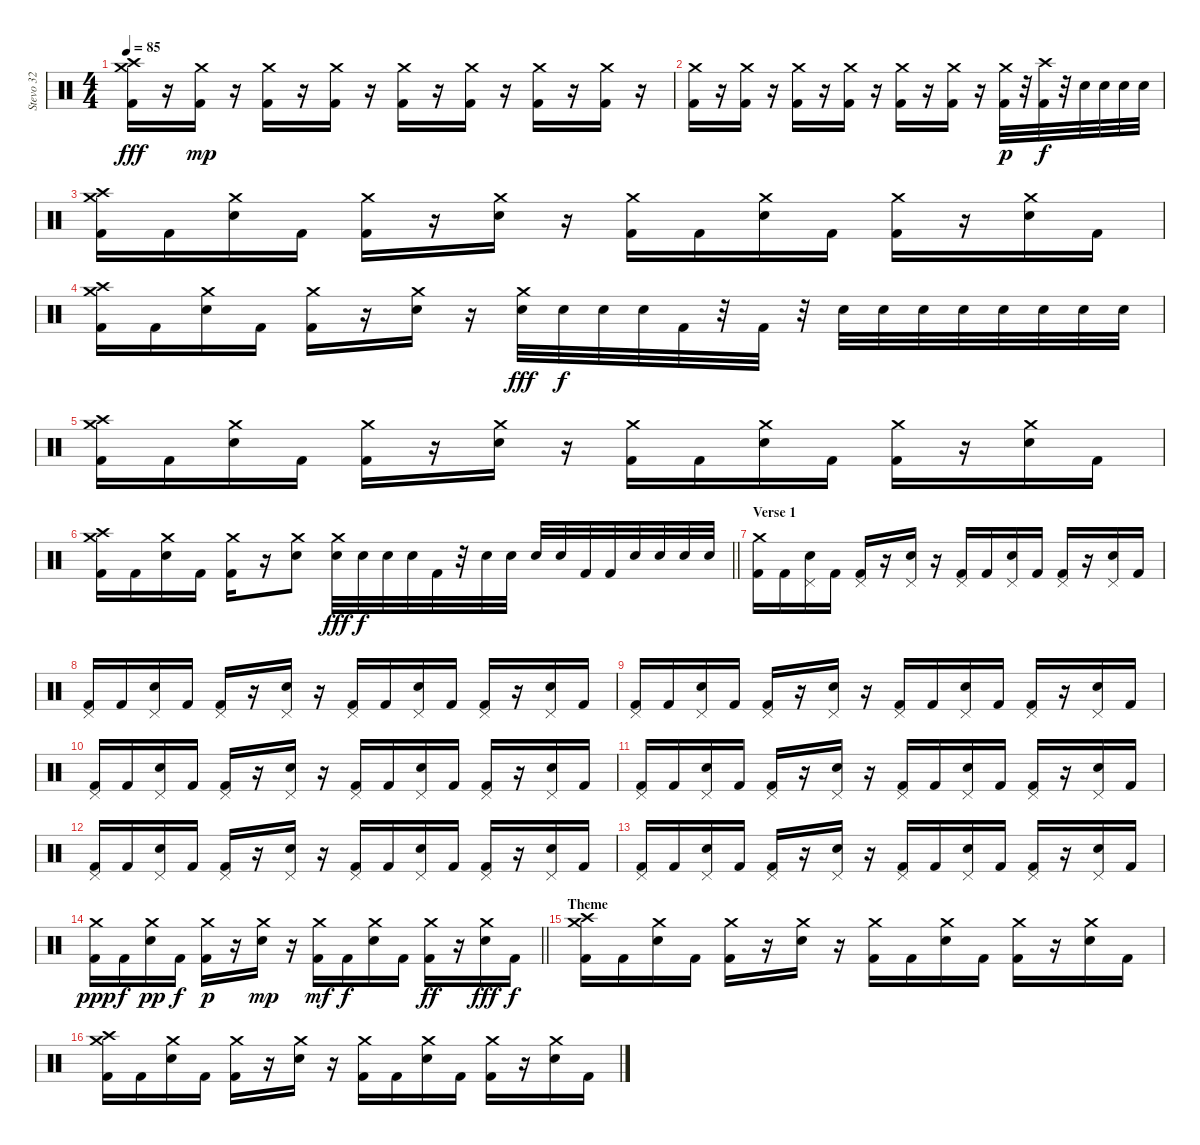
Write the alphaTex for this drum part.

\track ("Stevo 32" "Stevo 32") {instrument percussion}
\staff {score}
\articulation defaults
\ts (4 4)
\tempo 85
\clef neutral
\ks c
("Crash high (hit)" "Crash medium (hit)" "Kick (hit) 2").16{dy fff} r.16 ("Crash medium (hit)" "Kick (hit) 2").16{dy mp} r.16 ("Crash medium (hit)" "Kick (hit) 2").16 r.16 ("Crash medium (hit)" "Kick (hit) 2").16 r.16 ("Crash medium (hit)" "Kick (hit) 2").16 r.16 ("Crash medium (hit)" "Kick (hit) 2").16 r.16 ("Crash medium (hit)" "Kick (hit) 2").16 r.16 ("Crash medium (hit)" "Kick (hit) 2").16 r.16 |
("Crash medium (hit)" "Kick (hit) 2").16 r.16 ("Crash medium (hit)" "Kick (hit) 2").16 r.16 ("Crash medium (hit)" "Kick (hit) 2").16 r.16 ("Crash medium (hit)" "Kick (hit) 2").16 r.16 ("Crash medium (hit)" "Kick (hit) 2").16 r.16 ("Crash medium (hit)" "Kick (hit) 2").16 r.16 ("Crash medium (hit)" "Kick (hit) 2").32{dy p} r.32 ("Crash high (hit)" "Kick (hit) 2").32{dy f} r.32 "Electric Snare (hit)".32 "Electric Snare (hit)".32 "Electric Snare (hit)".32 "Electric Snare (hit)".32 |
("Crash high (hit)" "Crash medium (hit)" "Kick (hit) 2").16 "Kick (hit) 2".16 ("Crash medium (hit)" "Electric Snare (hit)").16 "Kick (hit) 2".16 ("Crash medium (hit)" "Kick (hit) 2").16 r.16 ("Crash medium (hit)" "Electric Snare (hit)").16 r.16 ("Crash medium (hit)" "Kick (hit) 2").16 "Kick (hit) 2".16 ("Crash medium (hit)" "Electric Snare (hit)").16 "Kick (hit) 2".16 ("Crash medium (hit)" "Kick (hit) 2").16 r.16 ("Crash medium (hit)" "Electric Snare (hit)").16 "Kick (hit) 2".16 |
("Crash high (hit)" "Crash medium (hit)" "Kick (hit) 2").16 "Kick (hit) 2".16 ("Crash medium (hit)" "Electric Snare (hit)").16 "Kick (hit) 2".16 ("Crash medium (hit)" "Kick (hit) 2").16 r.16 ("Crash medium (hit)" "Electric Snare (hit)").16 r.16 ("Crash medium (hit)" "Electric Snare (hit)").32{dy fff} "Electric Snare (hit)".32{dy f} "Electric Snare (hit)".32 "Electric Snare (hit)".32 "Kick (hit) 2".32 r.32 "Kick (hit) 2".32 r.32 "Electric Snare (hit)".32 "Electric Snare (hit)".32 "Electric Snare (hit)".32 "Electric Snare (hit)".32 "Electric Snare (hit)".32 "Electric Snare (hit)".32 "Electric Snare (hit)".32 "Electric Snare (hit)".32 |
("Crash high (hit)" "Crash medium (hit)" "Kick (hit) 2").16 "Kick (hit) 2".16 ("Crash medium (hit)" "Electric Snare (hit)").16 "Kick (hit) 2".16 ("Crash medium (hit)" "Kick (hit) 2").16 r.16 ("Crash medium (hit)" "Electric Snare (hit)").16 r.16 ("Crash medium (hit)" "Kick (hit) 2").16 "Kick (hit) 2".16 ("Crash medium (hit)" "Electric Snare (hit)").16 "Kick (hit) 2".16 ("Crash medium (hit)" "Kick (hit) 2").16 r.16 ("Crash medium (hit)" "Electric Snare (hit)").16 "Kick (hit) 2".16 |
\barLineRight lightlight
("Crash high (hit)" "Crash medium (hit)" "Kick (hit) 2").16 "Kick (hit) 2".16 ("Crash medium (hit)" "Electric Snare (hit)").16 "Kick (hit) 2".16 ("Crash medium (hit)" "Kick (hit) 2").16 r.16 ("Crash medium (hit)" "Electric Snare (hit)").8 ("Crash medium (hit)" "Electric Snare (hit)").32{dy fff} "Electric Snare (hit)".32{dy f} "Electric Snare (hit)".32 "Electric Snare (hit)".32 "Kick (hit) 2".32 r.32 "Electric Snare (hit)".32 "Electric Snare (hit)".32 "Electric Snare (hit)".32 "Electric Snare (hit)".32 "Kick (hit) 2".32 "Kick (hit) 2".32 "Electric Snare (hit)".32 "Electric Snare (hit)".32 "Electric Snare (hit)".32 "Electric Snare (hit)".32 |
\section ("" "Verse 1")
("Crash medium (hit)" "Kick (hit) 2").16 "Kick (hit) 2".16 ("Pedal Hi-Hat (hit)" "Electric Snare (hit)").16 "Kick (hit) 2".16 ("Pedal Hi-Hat (hit)" "Kick (hit) 2").16 r.16 ("Pedal Hi-Hat (hit)" "Electric Snare (hit)").16 r.16 ("Pedal Hi-Hat (hit)" "Kick (hit) 2").16 "Kick (hit) 2".16 ("Pedal Hi-Hat (hit)" "Electric Snare (hit)").16 "Kick (hit) 2".16 ("Pedal Hi-Hat (hit)" "Kick (hit) 2").16 r.16 ("Pedal Hi-Hat (hit)" "Electric Snare (hit)").16 "Kick (hit) 2".16 |
("Pedal Hi-Hat (hit)" "Kick (hit) 2").16 "Kick (hit) 2".16 ("Pedal Hi-Hat (hit)" "Electric Snare (hit)").16 "Kick (hit) 2".16 ("Pedal Hi-Hat (hit)" "Kick (hit) 2").16 r.16 ("Pedal Hi-Hat (hit)" "Electric Snare (hit)").16 r.16 ("Pedal Hi-Hat (hit)" "Kick (hit) 2").16 "Kick (hit) 2".16 ("Pedal Hi-Hat (hit)" "Electric Snare (hit)").16 "Kick (hit) 2".16 ("Pedal Hi-Hat (hit)" "Kick (hit) 2").16 r.16 ("Pedal Hi-Hat (hit)" "Electric Snare (hit)").16 "Kick (hit) 2".16 |
("Pedal Hi-Hat (hit)" "Kick (hit) 2").16 "Kick (hit) 2".16 ("Pedal Hi-Hat (hit)" "Electric Snare (hit)").16 "Kick (hit) 2".16 ("Pedal Hi-Hat (hit)" "Kick (hit) 2").16 r.16 ("Pedal Hi-Hat (hit)" "Electric Snare (hit)").16 r.16 ("Pedal Hi-Hat (hit)" "Kick (hit) 2").16 "Kick (hit) 2".16 ("Pedal Hi-Hat (hit)" "Electric Snare (hit)").16 "Kick (hit) 2".16 ("Pedal Hi-Hat (hit)" "Kick (hit) 2").16 r.16 ("Pedal Hi-Hat (hit)" "Electric Snare (hit)").16 "Kick (hit) 2".16 |
("Pedal Hi-Hat (hit)" "Kick (hit) 2").16 "Kick (hit) 2".16 ("Pedal Hi-Hat (hit)" "Electric Snare (hit)").16 "Kick (hit) 2".16 ("Pedal Hi-Hat (hit)" "Kick (hit) 2").16 r.16 ("Pedal Hi-Hat (hit)" "Electric Snare (hit)").16 r.16 ("Pedal Hi-Hat (hit)" "Kick (hit) 2").16 "Kick (hit) 2".16 ("Pedal Hi-Hat (hit)" "Electric Snare (hit)").16 "Kick (hit) 2".16 ("Pedal Hi-Hat (hit)" "Kick (hit) 2").16 r.16 ("Pedal Hi-Hat (hit)" "Electric Snare (hit)").16 "Kick (hit) 2".16 |
("Pedal Hi-Hat (hit)" "Kick (hit) 2").16 "Kick (hit) 2".16 ("Pedal Hi-Hat (hit)" "Electric Snare (hit)").16 "Kick (hit) 2".16 ("Pedal Hi-Hat (hit)" "Kick (hit) 2").16 r.16 ("Pedal Hi-Hat (hit)" "Electric Snare (hit)").16 r.16 ("Pedal Hi-Hat (hit)" "Kick (hit) 2").16 "Kick (hit) 2".16 ("Pedal Hi-Hat (hit)" "Electric Snare (hit)").16 "Kick (hit) 2".16 ("Pedal Hi-Hat (hit)" "Kick (hit) 2").16 r.16 ("Pedal Hi-Hat (hit)" "Electric Snare (hit)").16 "Kick (hit) 2".16 |
("Pedal Hi-Hat (hit)" "Kick (hit) 2").16 "Kick (hit) 2".16 ("Pedal Hi-Hat (hit)" "Electric Snare (hit)").16 "Kick (hit) 2".16 ("Pedal Hi-Hat (hit)" "Kick (hit) 2").16 r.16 ("Pedal Hi-Hat (hit)" "Electric Snare (hit)").16 r.16 ("Pedal Hi-Hat (hit)" "Kick (hit) 2").16 "Kick (hit) 2".16 ("Pedal Hi-Hat (hit)" "Electric Snare (hit)").16 "Kick (hit) 2".16 ("Pedal Hi-Hat (hit)" "Kick (hit) 2").16 r.16 ("Pedal Hi-Hat (hit)" "Electric Snare (hit)").16 "Kick (hit) 2".16 |
("Pedal Hi-Hat (hit)" "Kick (hit) 2").16 "Kick (hit) 2".16 ("Pedal Hi-Hat (hit)" "Electric Snare (hit)").16 "Kick (hit) 2".16 ("Pedal Hi-Hat (hit)" "Kick (hit) 2").16 r.16 ("Pedal Hi-Hat (hit)" "Electric Snare (hit)").16 r.16 ("Pedal Hi-Hat (hit)" "Kick (hit) 2").16 "Kick (hit) 2".16 ("Pedal Hi-Hat (hit)" "Electric Snare (hit)").16 "Kick (hit) 2".16 ("Pedal Hi-Hat (hit)" "Kick (hit) 2").16 r.16 ("Pedal Hi-Hat (hit)" "Electric Snare (hit)").16 "Kick (hit) 2".16 |
\barLineRight lightlight
("Crash medium (hit)" "Kick (hit) 2").16{dy ppp} "Kick (hit) 2".16{dy f} ("Crash medium (hit)" "Electric Snare (hit)").16{dy pp} "Kick (hit) 2".16{dy f} ("Crash medium (hit)" "Kick (hit) 2").16{dy p} r.16 ("Crash medium (hit)" "Electric Snare (hit)").16{dy mp} r.16 ("Crash medium (hit)" "Kick (hit) 2").16{dy mf} "Kick (hit) 2".16{dy f} ("Crash medium (hit)" "Electric Snare (hit)").16 "Kick (hit) 2".16 ("Crash medium (hit)" "Kick (hit) 2").16{dy ff} r.16 ("Crash medium (hit)" "Electric Snare (hit)").16{dy fff} "Kick (hit) 2".16{dy f} |
\section ("" "Theme")
("Crash high (hit)" "Crash medium (hit)" "Kick (hit) 2").16 "Kick (hit) 2".16 ("Crash medium (hit)" "Electric Snare (hit)").16 "Kick (hit) 2".16 ("Crash medium (hit)" "Kick (hit) 2").16 r.16 ("Crash medium (hit)" "Electric Snare (hit)").16 r.16 ("Crash medium (hit)" "Kick (hit) 2").16 "Kick (hit) 2".16 ("Crash medium (hit)" "Electric Snare (hit)").16 "Kick (hit) 2".16 ("Crash medium (hit)" "Kick (hit) 2").16 r.16 ("Crash medium (hit)" "Electric Snare (hit)").16 "Kick (hit) 2".16 |
("Crash high (hit)" "Crash medium (hit)" "Kick (hit) 2").16 "Kick (hit) 2".16 ("Crash medium (hit)" "Electric Snare (hit)").16 "Kick (hit) 2".16 ("Crash medium (hit)" "Kick (hit) 2").16 r.16 ("Crash medium (hit)" "Electric Snare (hit)").16 r.16 ("Crash medium (hit)" "Kick (hit) 2").16 "Kick (hit) 2".16 ("Crash medium (hit)" "Electric Snare (hit)").16 "Kick (hit) 2".16 ("Crash medium (hit)" "Kick (hit) 2").16 r.16 ("Crash medium (hit)" "Electric Snare (hit)").16 "Kick (hit) 2".16
